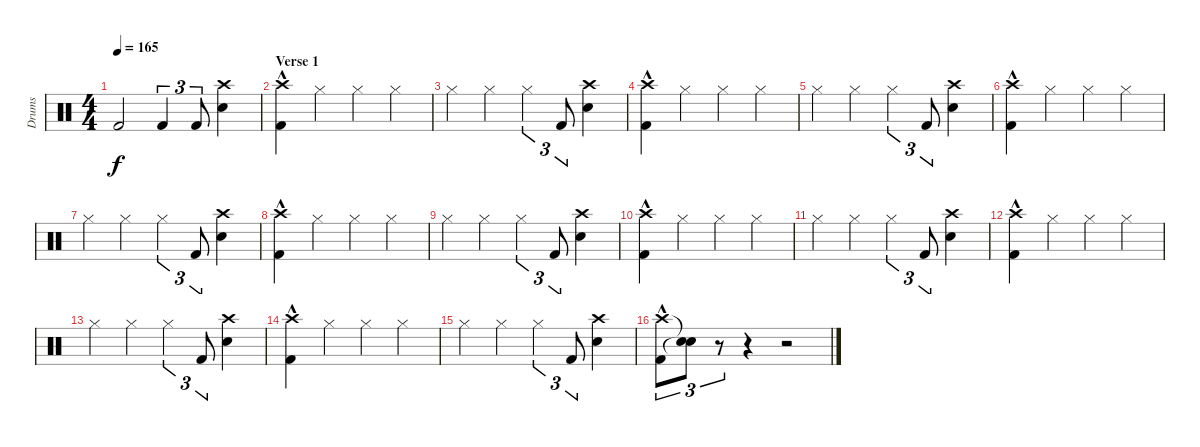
\track ("Drums" "Drums") {instrument percussion}
\staff {score}
\articulation defaults
\ts (4 4)
\tempo 165
\clef neutral
\ks c "Kick (hit) 2".2{dy f} "Kick (hit) 2".4{tu (3 2)} "Kick (hit) 2".8{tu (3 2)}
("Snare (hit) 2" "Crash high (hit)").4 |
\section ("" "Verse 1")
("Kick (hit) 2" "Crash high (hit)"{hac}).4 "Hi-Hat (closed)".4 "Hi-Hat (closed)".4 "Hi-Hat (closed)".4 |
"Hi-Hat (closed)".4 "Hi-Hat (closed)".4 "Hi-Hat (closed)".4{tu (3 2)} "Kick (hit) 2".8{tu (3 2)} ("Snare (hit) 2" "Crash high (hit)").4 |
("Kick (hit) 2" "Crash high (hit)"{hac}).4 "Hi-Hat (closed)".4 "Hi-Hat (closed)".4 "Hi-Hat (closed)".4 |
"Hi-Hat (closed)".4 "Hi-Hat (closed)".4 "Hi-Hat (closed)".4{tu (3 2)} "Kick (hit) 2".8{tu (3 2)} ("Snare (hit) 2" "Crash high (hit)").4 |
("Kick (hit) 2" "Crash high (hit)"{hac}).4 "Hi-Hat (closed)".4 "Hi-Hat (closed)".4 "Hi-Hat (closed)".4 |
"Hi-Hat (closed)".4 "Hi-Hat (closed)".4 "Hi-Hat (closed)".4{tu (3 2)} "Kick (hit) 2".8{tu (3 2)} ("Snare (hit) 2" "Crash high (hit)").4 |
("Kick (hit) 2" "Crash high (hit)"{hac}).4 "Hi-Hat (closed)".4 "Hi-Hat (closed)".4 "Hi-Hat (closed)".4 |
"Hi-Hat (closed)".4 "Hi-Hat (closed)".4 "Hi-Hat (closed)".4{tu (3 2)} "Kick (hit) 2".8{tu (3 2)} ("Snare (hit) 2" "Crash high (hit)").4 |
("Kick (hit) 2" "Crash high (hit)"{hac}).4 "Hi-Hat (closed)".4 "Hi-Hat (closed)".4 "Hi-Hat (closed)".4 |
"Hi-Hat (closed)".4 "Hi-Hat (closed)".4 "Hi-Hat (closed)".4{tu (3 2)} "Kick (hit) 2".8{tu (3 2)} ("Snare (hit) 2" "Crash high (hit)").4 |
("Kick (hit) 2" "Crash high (hit)"{hac}).4 "Hi-Hat (closed)".4 "Hi-Hat (closed)".4 "Hi-Hat (closed)".4 |
"Hi-Hat (closed)".4 "Hi-Hat (closed)".4 "Hi-Hat (closed)".4{tu (3 2)} "Kick (hit) 2".8{tu (3 2)} ("Snare (hit) 2" "Crash high (hit)").4 |
("Kick (hit) 2" "Crash high (hit)"{hac}).4 "Hi-Hat (closed)".4 "Hi-Hat (closed)".4 "Hi-Hat (closed)".4 |
"Hi-Hat (closed)".4 "Hi-Hat (closed)".4 "Hi-Hat (closed)".4{tu (3 2)} "Kick (hit) 2".8{tu (3 2)} ("Snare (hit) 2" "Crash high (hit)").4 |
("Kick (hit) 2" "Crash high (hit)"{hac}).8{tu (3 2)} ("Snare (hit)"{t} "Snare (hit)"{t}).8{tu (3 2)} r.8{tu (3 2)} r.4 r.2
